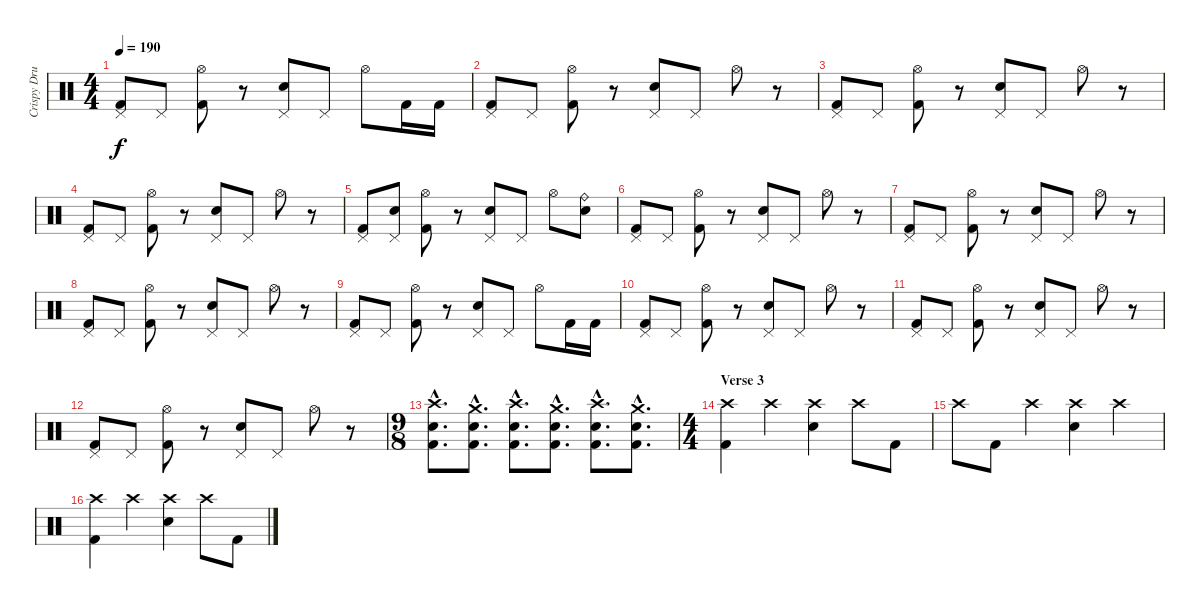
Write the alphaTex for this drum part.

\track ("Crispy Drums" "Crispy Dru") {instrument percussion}
\staff {score}
\articulation defaults
\ts (4 4)
\tempo 190
\clef neutral
\ks c
("Pedal Hi-Hat (hit)" "Kick (hit) 2").8{dy f} "Pedal Hi-Hat (hit)".8 ("Hi-Hat (open)" "Kick (hit) 2").8 r.8 ("Pedal Hi-Hat (hit)" "Electric Snare (hit)").8 "Pedal Hi-Hat (hit)".8 "Hi-Hat (open)".8 "Kick (hit) 2".16 "Kick (hit) 2".16 |
("Pedal Hi-Hat (hit)" "Kick (hit) 2").8 "Pedal Hi-Hat (hit)".8 ("Hi-Hat (open)" "Kick (hit) 2").8 r.8 ("Pedal Hi-Hat (hit)" "Electric Snare (hit)").8 "Pedal Hi-Hat (hit)".8 "Hi-Hat (open)".8 r.8 |
("Pedal Hi-Hat (hit)" "Kick (hit) 2").8 "Pedal Hi-Hat (hit)".8 ("Hi-Hat (open)" "Kick (hit) 2").8 r.8 ("Pedal Hi-Hat (hit)" "Electric Snare (hit)").8 "Pedal Hi-Hat (hit)".8 "Hi-Hat (open)".8 r.8 |
("Pedal Hi-Hat (hit)" "Kick (hit) 2").8 "Pedal Hi-Hat (hit)".8 ("Hi-Hat (open)" "Kick (hit) 2").8 r.8 ("Pedal Hi-Hat (hit)" "Electric Snare (hit)").8 "Pedal Hi-Hat (hit)".8 "Hi-Hat (open)".8 r.8 |
("Pedal Hi-Hat (hit)" "Kick (hit) 2").8 ("Pedal Hi-Hat (hit)" "Electric Snare (hit)").8 ("Hi-Hat (open)" "Kick (hit) 2").8 r.8 ("Pedal Hi-Hat (hit)" "Electric Snare (hit)").8 "Pedal Hi-Hat (hit)".8 "Hi-Hat (open)".8 ("Ride (bell)" "Electric Snare (hit)").8 |
("Pedal Hi-Hat (hit)" "Kick (hit) 2").8 "Pedal Hi-Hat (hit)".8 ("Hi-Hat (open)" "Kick (hit) 2").8 r.8 ("Pedal Hi-Hat (hit)" "Electric Snare (hit)").8 "Pedal Hi-Hat (hit)".8 "Hi-Hat (open)".8 r.8 |
("Pedal Hi-Hat (hit)" "Kick (hit) 2").8 "Pedal Hi-Hat (hit)".8 ("Hi-Hat (open)" "Kick (hit) 2").8 r.8 ("Pedal Hi-Hat (hit)" "Electric Snare (hit)").8 "Pedal Hi-Hat (hit)".8 "Hi-Hat (open)".8 r.8 |
("Pedal Hi-Hat (hit)" "Kick (hit) 2").8 "Pedal Hi-Hat (hit)".8 ("Hi-Hat (open)" "Kick (hit) 2").8 r.8 ("Pedal Hi-Hat (hit)" "Electric Snare (hit)").8 "Pedal Hi-Hat (hit)".8 "Hi-Hat (open)".8 r.8 |
("Pedal Hi-Hat (hit)" "Kick (hit) 2").8 "Pedal Hi-Hat (hit)".8 ("Hi-Hat (open)" "Kick (hit) 2").8 r.8 ("Pedal Hi-Hat (hit)" "Electric Snare (hit)").8 "Pedal Hi-Hat (hit)".8 "Hi-Hat (open)".8 "Kick (hit) 2".16 "Kick (hit) 2".16 |
("Pedal Hi-Hat (hit)" "Kick (hit) 2").8 "Pedal Hi-Hat (hit)".8 ("Hi-Hat (open)" "Kick (hit) 2").8 r.8 ("Pedal Hi-Hat (hit)" "Electric Snare (hit)").8 "Pedal Hi-Hat (hit)".8 "Hi-Hat (open)".8 r.8 |
("Pedal Hi-Hat (hit)" "Kick (hit) 2").8 "Pedal Hi-Hat (hit)".8 ("Hi-Hat (open)" "Kick (hit) 2").8 r.8 ("Pedal Hi-Hat (hit)" "Electric Snare (hit)").8 "Pedal Hi-Hat (hit)".8 "Hi-Hat (open)".8 r.8 |
("Pedal Hi-Hat (hit)" "Kick (hit) 2").8 "Pedal Hi-Hat (hit)".8 ("Hi-Hat (open)" "Kick (hit) 2").8 r.8 ("Pedal Hi-Hat (hit)" "Electric Snare (hit)").8 "Pedal Hi-Hat (hit)".8 "Hi-Hat (open)".8 r.8 |
\ts (9 8)
("Crash high (hit)"{hac} "Electric Snare (hit)"{hac} "Kick (hit) 2"{hac}).8{d} ("Crash medium (hit)"{hac} "Electric Snare (hit)"{hac} "Kick (hit) 2"{hac}).8{d} ("Crash high (hit)"{hac} "Electric Snare (hit)"{hac} "Kick (hit) 2"{hac}).8{d} ("Crash medium (hit)"{hac} "Electric Snare (hit)"{hac} "Kick (hit) 2"{hac}).8{d} ("Crash high (hit)"{hac} "Electric Snare (hit)"{hac} "Kick (hit) 2"{hac}).8{d} ("Crash medium (hit)"{hac} "Electric Snare (hit)"{hac} "Kick (hit) 2"{hac}).8{d} |
\ts (4 4)
\section ("" "Verse 3")
("Crash high (hit)" "Kick (hit) 2").4 "Crash high (hit)".4 ("Crash high (hit)" "Electric Snare (hit)").4 "Crash high (hit)".8 "Kick (hit) 2".8 |
"Crash high (hit)".8 "Kick (hit) 2".8 "Crash high (hit)".4 ("Crash high (hit)" "Electric Snare (hit)").4 "Crash high (hit)".4 |
("Crash high (hit)" "Kick (hit) 2").4 "Crash high (hit)".4 ("Crash high (hit)" "Electric Snare (hit)").4 "Crash high (hit)".8 "Kick (hit) 2".8
